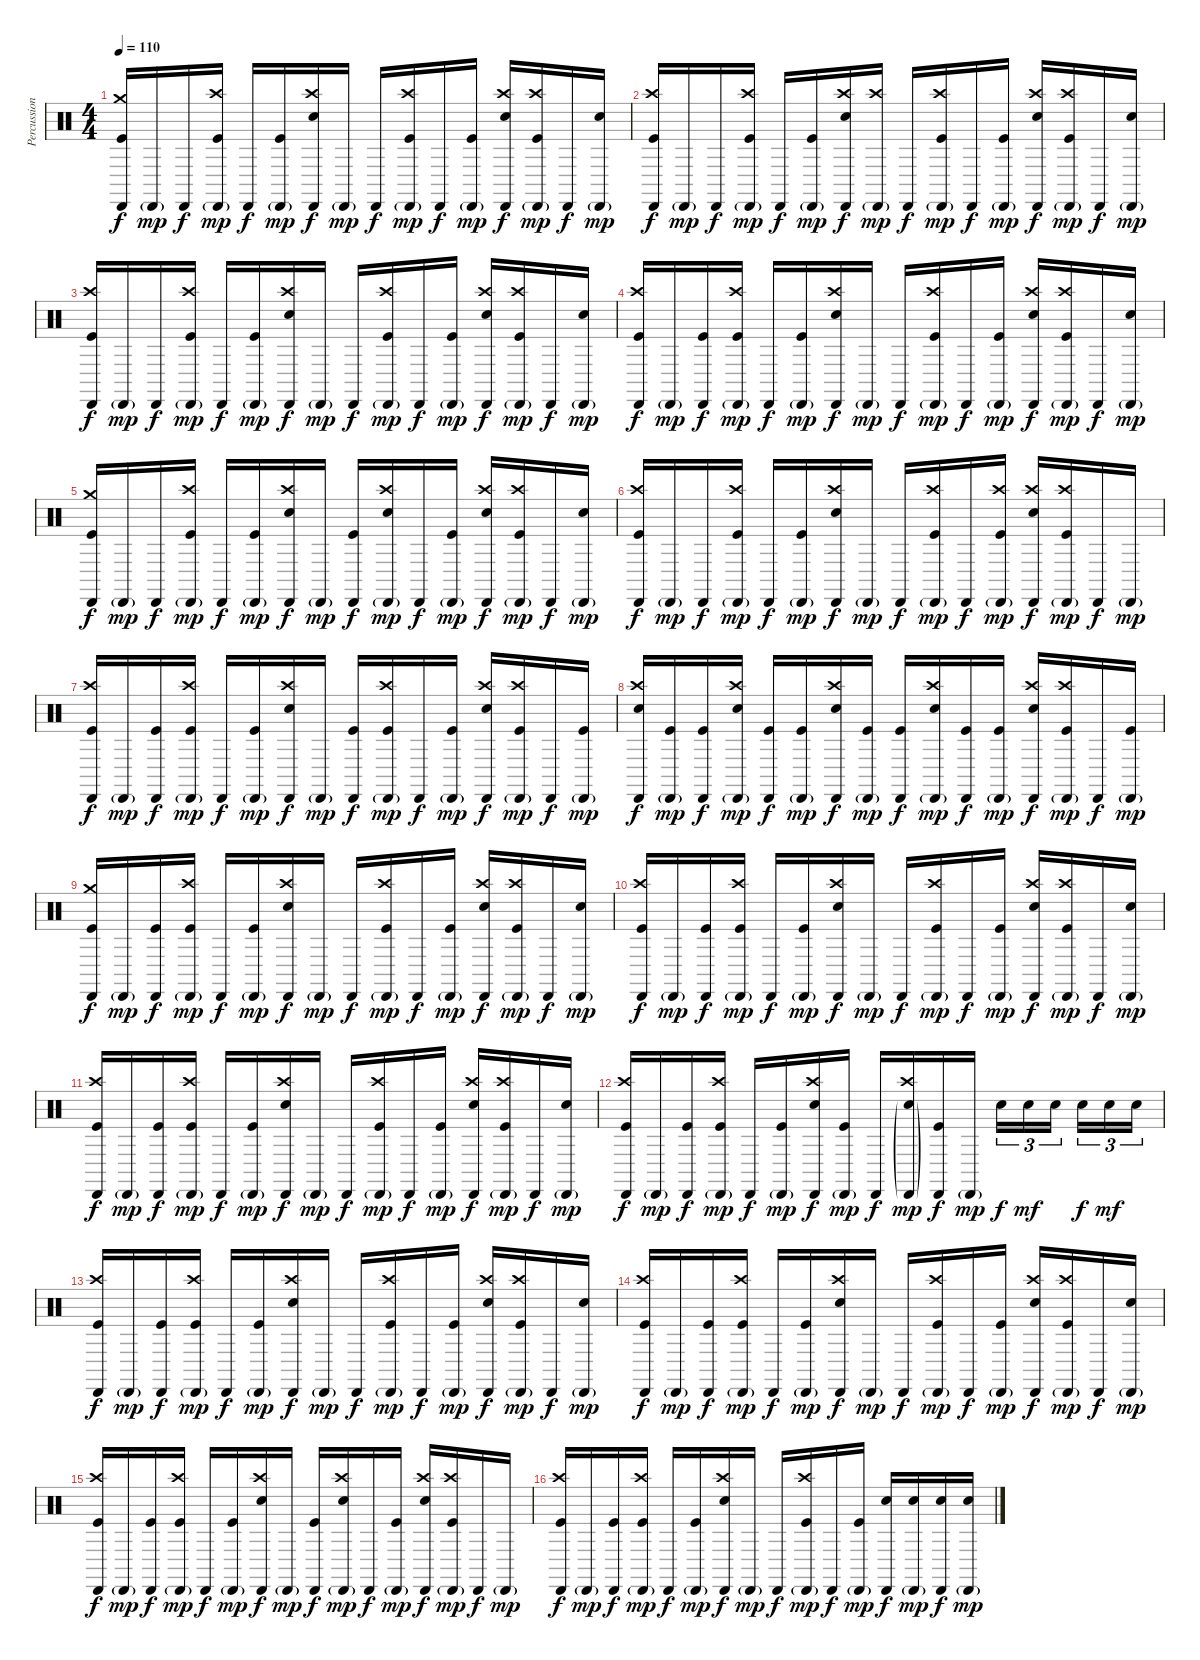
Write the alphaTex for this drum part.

\track ("Percussion" "Percussion") {instrument percussion}
\staff {score}
\articulation defaults
\ts (4 4)
\tempo 110
\clef neutral
\ks c
("Cabasa (hit)" "Crash medium (hit)" "Kick (hit)").16{dy f} "Cabasa (hit)"{g}.16{dy mp} "Cabasa (hit)".16{dy f} ("Cabasa (hit)"{g} "Crash high (hit)" "Kick (hit)").16{dy mp} "Cabasa (hit)".16{dy f} ("Cabasa (hit)"{g} "Kick (hit)").16{dy mp} ("Cabasa (hit)" "Crash high (hit)" "Snare (hit) 2").16{dy f} "Cabasa (hit)"{g}.16{dy mp} "Cabasa (hit)".16{dy f} ("Cabasa (hit)"{g} "Crash high (hit)" "Kick (hit)").16{dy mp} "Cabasa (hit)".16{dy f} ("Cabasa (hit)"{g} "Kick (hit)").16{dy mp} ("Cabasa (hit)" "Crash high (hit)" "Snare (hit) 2").16{dy f} ("Cabasa (hit)"{g} "Crash high (hit)" "Kick (hit)").16{dy mp} "Cabasa (hit)".16{dy f} ("Cabasa (hit)"{g} "Snare (hit) 2").16{dy mp} |
("Cabasa (hit)" "Crash high (hit)" "Kick (hit)").16{dy f} "Cabasa (hit)"{g}.16{dy mp} "Cabasa (hit)".16{dy f} ("Cabasa (hit)"{g} "Crash high (hit)" "Kick (hit)").16{dy mp} "Cabasa (hit)".16{dy f} ("Cabasa (hit)"{g} "Kick (hit)").16{dy mp} ("Cabasa (hit)" "Crash high (hit)" "Snare (hit) 2").16{dy f} ("Cabasa (hit)"{g} "Crash high (hit)").16{dy mp} "Cabasa (hit)".16{dy f} ("Cabasa (hit)"{g} "Crash high (hit)" "Kick (hit)").16{dy mp} "Cabasa (hit)".16{dy f} ("Cabasa (hit)"{g} "Kick (hit)").16{dy mp} ("Cabasa (hit)" "Crash high (hit)" "Snare (hit) 2").16{dy f} ("Cabasa (hit)"{g} "Crash high (hit)" "Kick (hit)").16{dy mp} "Cabasa (hit)".16{dy f} ("Cabasa (hit)"{g} "Snare (hit) 2").16{dy mp} |
("Cabasa (hit)" "Crash high (hit)" "Kick (hit)").16{dy f} "Cabasa (hit)"{g}.16{dy mp} "Cabasa (hit)".16{dy f} ("Cabasa (hit)"{g} "Crash high (hit)" "Kick (hit)").16{dy mp} "Cabasa (hit)".16{dy f} ("Cabasa (hit)"{g} "Kick (hit)").16{dy mp} ("Cabasa (hit)" "Crash high (hit)" "Snare (hit) 2").16{dy f} "Cabasa (hit)"{g}.16{dy mp} "Cabasa (hit)".16{dy f} ("Cabasa (hit)"{g} "Crash high (hit)" "Kick (hit)").16{dy mp} "Cabasa (hit)".16{dy f} ("Cabasa (hit)"{g} "Kick (hit)").16{dy mp} ("Cabasa (hit)" "Crash high (hit)" "Snare (hit) 2").16{dy f} ("Cabasa (hit)"{g} "Crash high (hit)" "Kick (hit)").16{dy mp} "Cabasa (hit)".16{dy f} ("Cabasa (hit)"{g} "Snare (hit) 2").16{dy mp} |
("Cabasa (hit)" "Crash high (hit)" "Kick (hit)").16{dy f} "Cabasa (hit)"{g}.16{dy mp} ("Cabasa (hit)" "Kick (hit)").16{dy f} ("Cabasa (hit)"{g} "Crash high (hit)" "Kick (hit)").16{dy mp} "Cabasa (hit)".16{dy f} ("Cabasa (hit)"{g} "Kick (hit)").16{dy mp} ("Cabasa (hit)" "Crash high (hit)" "Snare (hit) 2").16{dy f} "Cabasa (hit)"{g}.16{dy mp} "Cabasa (hit)".16{dy f} ("Cabasa (hit)"{g} "Crash high (hit)" "Kick (hit)").16{dy mp} "Cabasa (hit)".16{dy f} ("Cabasa (hit)"{g} "Kick (hit)").16{dy mp} ("Cabasa (hit)" "Crash high (hit)" "Snare (hit) 2").16{dy f} ("Cabasa (hit)"{g} "Crash high (hit)" "Kick (hit)").16{dy mp} "Cabasa (hit)".16{dy f} ("Cabasa (hit)"{g} "Snare (hit) 2").16{dy mp} |
("Cabasa (hit)" "Crash medium (hit)" "Kick (hit)").16{dy f} "Cabasa (hit)"{g}.16{dy mp} "Cabasa (hit)".16{dy f} ("Cabasa (hit)"{g} "Crash high (hit)" "Kick (hit)").16{dy mp} "Cabasa (hit)".16{dy f} ("Cabasa (hit)"{g} "Kick (hit)").16{dy mp} ("Cabasa (hit)" "Crash high (hit)" "Snare (hit) 2").16{dy f} "Cabasa (hit)"{g}.16{dy mp} ("Cabasa (hit)" "Kick (hit)").16{dy f} ("Cabasa (hit)"{g} "Crash high (hit)" "Snare (hit) 2").16{dy mp} "Cabasa (hit)".16{dy f} ("Cabasa (hit)"{g} "Kick (hit)").16{dy mp} ("Cabasa (hit)" "Crash high (hit)" "Snare (hit) 2").16{dy f} ("Cabasa (hit)"{g} "Crash high (hit)" "Kick (hit)").16{dy mp} "Cabasa (hit)".16{dy f} ("Cabasa (hit)"{g} "Snare (hit) 2").16{dy mp} |
("Cabasa (hit)" "Crash high (hit)" "Kick (hit)").16{dy f} "Cabasa (hit)"{g}.16{dy mp} "Cabasa (hit)".16{dy f} ("Cabasa (hit)"{g} "Crash high (hit)" "Kick (hit)").16{dy mp} "Cabasa (hit)".16{dy f} ("Cabasa (hit)"{g} "Kick (hit)").16{dy mp} ("Cabasa (hit)" "Crash high (hit)" "Snare (hit) 2").16{dy f} "Cabasa (hit)"{g}.16{dy mp} "Cabasa (hit)".16{dy f} ("Cabasa (hit)"{g} "Crash high (hit)" "Kick (hit)").16{dy mp} "Cabasa (hit)".16{dy f} ("Cabasa (hit)"{g} "Crash high (hit)" "Kick (hit)").16{dy mp} ("Cabasa (hit)" "Crash high (hit)" "Snare (hit) 2").16{dy f} ("Cabasa (hit)"{g} "Crash high (hit)" "Kick (hit)").16{dy mp} "Cabasa (hit)".16{dy f} "Cabasa (hit)"{g}.16{dy mp} |
("Cabasa (hit)" "Crash high (hit)" "Kick (hit)").16{dy f} "Cabasa (hit)"{g}.16{dy mp} ("Cabasa (hit)" "Kick (hit)").16{dy f} ("Cabasa (hit)"{g} "Crash high (hit)" "Kick (hit)").16{dy mp} "Cabasa (hit)".16{dy f} ("Cabasa (hit)"{g} "Kick (hit)").16{dy mp} ("Cabasa (hit)" "Crash high (hit)" "Snare (hit) 2").16{dy f} "Cabasa (hit)"{g}.16{dy mp} ("Cabasa (hit)" "Kick (hit)").16{dy f} ("Cabasa (hit)"{g} "Crash high (hit)" "Kick (hit)").16{dy mp} "Cabasa (hit)".16{dy f} ("Cabasa (hit)"{g} "Kick (hit)").16{dy mp} ("Cabasa (hit)" "Crash high (hit)" "Snare (hit) 2").16{dy f} ("Cabasa (hit)"{g} "Crash high (hit)" "Kick (hit)").16{dy mp} "Cabasa (hit)".16{dy f} ("Cabasa (hit)"{g} "Kick (hit)").16{dy mp} |
("Cabasa (hit)" "Crash high (hit)" "Snare (hit) 2").16{dy f} ("Cabasa (hit)"{g} "Kick (hit)").16{dy mp} ("Cabasa (hit)" "Kick (hit)").16{dy f} ("Cabasa (hit)"{g} "Crash high (hit)" "Snare (hit) 2").16{dy mp} ("Cabasa (hit)" "Kick (hit)").16{dy f} ("Cabasa (hit)"{g} "Kick (hit)").16{dy mp} ("Cabasa (hit)" "Crash high (hit)" "Snare (hit) 2").16{dy f} ("Cabasa (hit)"{g} "Kick (hit)").16{dy mp} ("Cabasa (hit)" "Kick (hit)").16{dy f} ("Cabasa (hit)"{g} "Crash high (hit)" "Snare (hit) 2").16{dy mp} ("Cabasa (hit)" "Kick (hit)").16{dy f} ("Cabasa (hit)"{g} "Kick (hit)").16{dy mp} ("Cabasa (hit)" "Crash high (hit)" "Snare (hit) 2").16{dy f} ("Cabasa (hit)"{g} "Crash high (hit)" "Kick (hit)").16{dy mp} "Cabasa (hit)".16{dy f} ("Cabasa (hit)"{g} "Kick (hit)").16{dy mp} |
("Cabasa (hit)" "Crash medium (hit)" "Kick (hit)").16{dy f} "Cabasa (hit)"{g}.16{dy mp} ("Cabasa (hit)" "Kick (hit)").16{dy f} ("Cabasa (hit)"{g} "Crash high (hit)" "Kick (hit)").16{dy mp} "Cabasa (hit)".16{dy f} ("Cabasa (hit)"{g} "Kick (hit)").16{dy mp} ("Cabasa (hit)" "Crash high (hit)" "Snare (hit) 2").16{dy f} "Cabasa (hit)"{g}.16{dy mp} "Cabasa (hit)".16{dy f} ("Cabasa (hit)"{g} "Crash high (hit)" "Kick (hit)").16{dy mp} "Cabasa (hit)".16{dy f} ("Cabasa (hit)"{g} "Kick (hit)").16{dy mp} ("Cabasa (hit)" "Crash high (hit)" "Snare (hit) 2").16{dy f} ("Cabasa (hit)"{g} "Crash high (hit)" "Kick (hit)").16{dy mp} "Cabasa (hit)".16{dy f} ("Cabasa (hit)"{g} "Snare (hit) 2").16{dy mp} |
("Cabasa (hit)" "Crash high (hit)" "Kick (hit)").16{dy f} "Cabasa (hit)"{g}.16{dy mp} ("Cabasa (hit)" "Kick (hit)").16{dy f} ("Cabasa (hit)"{g} "Crash high (hit)" "Kick (hit)").16{dy mp} "Cabasa (hit)".16{dy f} ("Cabasa (hit)"{g} "Kick (hit)").16{dy mp} ("Cabasa (hit)" "Crash high (hit)" "Snare (hit) 2").16{dy f} "Cabasa (hit)"{g}.16{dy mp} "Cabasa (hit)".16{dy f} ("Cabasa (hit)"{g} "Crash high (hit)" "Kick (hit)").16{dy mp} "Cabasa (hit)".16{dy f} ("Cabasa (hit)"{g} "Kick (hit)").16{dy mp} ("Cabasa (hit)" "Crash high (hit)" "Snare (hit) 2").16{dy f} ("Cabasa (hit)"{g} "Crash high (hit)" "Kick (hit)").16{dy mp} "Cabasa (hit)".16{dy f} ("Cabasa (hit)"{g} "Snare (hit) 2").16{dy mp} |
("Cabasa (hit)" "Crash high (hit)" "Kick (hit)").16{dy f} "Cabasa (hit)"{g}.16{dy mp} ("Cabasa (hit)" "Kick (hit)").16{dy f} ("Cabasa (hit)"{g} "Crash high (hit)" "Kick (hit)").16{dy mp} "Cabasa (hit)".16{dy f} ("Cabasa (hit)"{g} "Kick (hit)").16{dy mp} ("Cabasa (hit)" "Crash high (hit)" "Snare (hit) 2").16{dy f} "Cabasa (hit)"{g}.16{dy mp} "Cabasa (hit)".16{dy f} ("Cabasa (hit)"{g} "Crash high (hit)" "Kick (hit)").16{dy mp} "Cabasa (hit)".16{dy f} ("Cabasa (hit)"{g} "Kick (hit)").16{dy mp} ("Cabasa (hit)" "Crash high (hit)" "Snare (hit) 2").16{dy f} ("Cabasa (hit)"{g} "Crash high (hit)" "Kick (hit)").16{dy mp} "Cabasa (hit)".16{dy f} ("Cabasa (hit)"{g} "Snare (hit) 2").16{dy mp} |
("Cabasa (hit)" "Crash high (hit)" "Kick (hit)").16{dy f} "Cabasa (hit)"{g}.16{dy mp} ("Cabasa (hit)" "Kick (hit)").16{dy f} ("Cabasa (hit)"{g} "Crash high (hit)" "Kick (hit)").16{dy mp} "Cabasa (hit)".16{dy f} ("Cabasa (hit)"{g} "Kick (hit)").16{dy mp} ("Cabasa (hit)" "Crash high (hit)" "Snare (hit) 2").16{dy f} ("Cabasa (hit)"{g} "Kick (hit)").16{dy mp} "Cabasa (hit)".16{dy f} ("Cabasa (hit)"{g} "Crash high (hit)" "Snare (hit) 2"{g}).16{dy mp} ("Cabasa (hit)" "Kick (hit)").16{dy f} "Cabasa (hit)"{g}.16{dy mp} "Snare (hit) 2".16{tu (3 2) dy f} "Snare (hit) 2".16{tu (3 2) dy mf} "Snare (hit) 2".16{tu (3 2) beam splitsecondary} "Snare (hit) 2".16{tu (3 2) dy f} "Snare (hit) 2".16{tu (3 2) dy mf} "Snare (hit) 2".16{tu (3 2)} |
("Cabasa (hit)" "Crash high (hit)" "Kick (hit)").16{dy f} "Cabasa (hit)"{g}.16{dy mp} ("Cabasa (hit)" "Kick (hit)").16{dy f} ("Cabasa (hit)"{g} "Crash high (hit)" "Kick (hit)").16{dy mp} "Cabasa (hit)".16{dy f} ("Cabasa (hit)"{g} "Kick (hit)").16{dy mp} ("Cabasa (hit)" "Crash high (hit)" "Snare (hit) 2").16{dy f} "Cabasa (hit)"{g}.16{dy mp} "Cabasa (hit)".16{dy f} ("Cabasa (hit)"{g} "Crash high (hit)" "Kick (hit)").16{dy mp} "Cabasa (hit)".16{dy f} ("Cabasa (hit)"{g} "Kick (hit)").16{dy mp} ("Cabasa (hit)" "Crash high (hit)" "Snare (hit) 2").16{dy f} ("Cabasa (hit)"{g} "Crash high (hit)" "Kick (hit)").16{dy mp} "Cabasa (hit)".16{dy f} ("Cabasa (hit)"{g} "Snare (hit) 2").16{dy mp} |
("Cabasa (hit)" "Crash high (hit)" "Kick (hit)").16{dy f} "Cabasa (hit)"{g}.16{dy mp} ("Cabasa (hit)" "Kick (hit)").16{dy f} ("Cabasa (hit)"{g} "Crash high (hit)" "Kick (hit)").16{dy mp} "Cabasa (hit)".16{dy f} ("Cabasa (hit)"{g} "Kick (hit)").16{dy mp} ("Cabasa (hit)" "Crash high (hit)" "Snare (hit) 2").16{dy f} "Cabasa (hit)"{g}.16{dy mp} "Cabasa (hit)".16{dy f} ("Cabasa (hit)"{g} "Crash high (hit)" "Kick (hit)").16{dy mp} "Cabasa (hit)".16{dy f} ("Cabasa (hit)"{g} "Kick (hit)").16{dy mp} ("Cabasa (hit)" "Crash high (hit)" "Snare (hit) 2").16{dy f} ("Cabasa (hit)"{g} "Crash high (hit)" "Kick (hit)").16{dy mp} "Cabasa (hit)".16{dy f} ("Cabasa (hit)"{g} "Snare (hit) 2").16{dy mp} |
("Cabasa (hit)" "Crash high (hit)" "Kick (hit)").16{dy f} "Cabasa (hit)"{g}.16{dy mp} ("Cabasa (hit)" "Kick (hit)").16{dy f} ("Cabasa (hit)"{g} "Crash high (hit)" "Kick (hit)").16{dy mp} "Cabasa (hit)".16{dy f} ("Cabasa (hit)"{g} "Kick (hit)").16{dy mp} ("Cabasa (hit)" "Crash high (hit)" "Snare (hit) 2").16{dy f} "Cabasa (hit)"{g}.16{dy mp} ("Cabasa (hit)" "Kick (hit)").16{dy f} ("Cabasa (hit)"{g} "Crash high (hit)" "Snare (hit) 2").16{dy mp} "Cabasa (hit)".16{dy f} ("Cabasa (hit)"{g} "Kick (hit)").16{dy mp} ("Cabasa (hit)" "Crash high (hit)" "Snare (hit) 2").16{dy f} ("Cabasa (hit)"{g} "Crash high (hit)" "Kick (hit)").16{dy mp} "Cabasa (hit)".16{dy f} "Cabasa (hit)"{g}.16{dy mp} |
("Cabasa (hit)" "Crash high (hit)" "Kick (hit)").16{dy f} "Cabasa (hit)"{g}.16{dy mp} ("Cabasa (hit)" "Kick (hit)").16{dy f} ("Cabasa (hit)"{g} "Crash high (hit)" "Kick (hit)").16{dy mp} "Cabasa (hit)".16{dy f} ("Cabasa (hit)"{g} "Kick (hit)").16{dy mp} ("Cabasa (hit)" "Crash high (hit)" "Snare (hit) 2").16{dy f} "Cabasa (hit)"{g}.16{dy mp} "Cabasa (hit)".16{dy f} ("Cabasa (hit)"{g} "Crash high (hit)" "Kick (hit)").16{dy mp} "Cabasa (hit)".16{dy f} ("Cabasa (hit)"{g} "Kick (hit)").16{dy mp} ("Cabasa (hit)" "Snare (hit) 2").16{dy f} ("Cabasa (hit)"{g} "Snare (hit) 2").16{dy mp} ("Cabasa (hit)" "Snare (hit) 2").16{dy f} ("Cabasa (hit)"{g} "Snare (hit) 2").16{dy mp}
